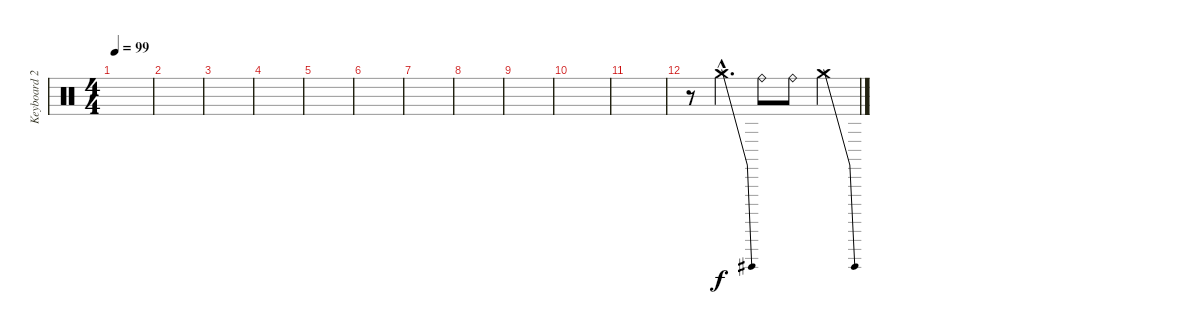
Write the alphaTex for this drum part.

\track ("Keyboard 2" "Keyboard 2") {instrument percussion}
\staff {score}
\articulation defaults
\ts (4 4)
\tempo 99
\clef neutral
\ks c
|
|
|
|
|
|
|
|
|
|
|
r.8 "Crash medium (hit)"{be (bend 0 0 60 12) hac}.4{d} "Ride (bell)".8 "Ride (bell)".8 "Crash medium (hit)"{be (bend 0 0 60 12)}.4
